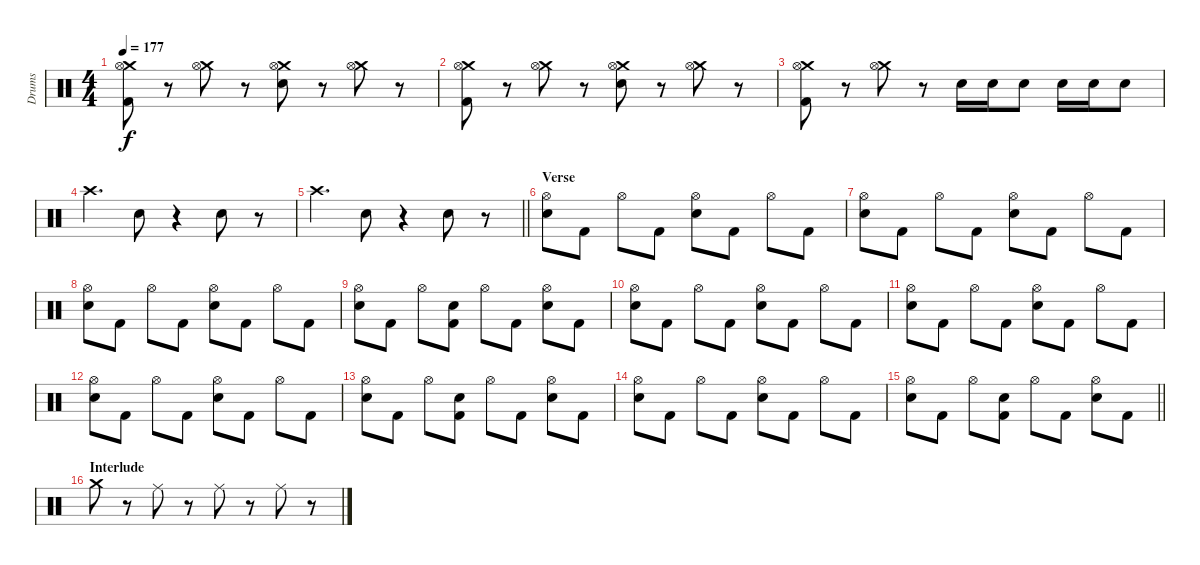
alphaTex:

\track ("Drums" "Drums") {instrument percussion}
\staff {score}
\articulation defaults
\ts (4 4)
\tempo 177
\clef neutral
\ks c
("Crash medium (hit)" "Hi-Hat (open)" "Kick (hit) 2").8{dy f} r.8 ("Crash medium (hit)" "Hi-Hat (open)").8 r.8 ("Crash medium (hit)" "Hi-Hat (open)" "Electric Snare (hit)").8 r.8 ("Crash medium (hit)" "Hi-Hat (open)").8 r.8 |
("Crash medium (hit)" "Hi-Hat (open)" "Kick (hit) 2").8 r.8 ("Crash medium (hit)" "Hi-Hat (open)").8 r.8 ("Crash medium (hit)" "Hi-Hat (open)" "Electric Snare (hit)").8 r.8 ("Crash medium (hit)" "Hi-Hat (open)").8 r.8 |
("Crash medium (hit)" "Hi-Hat (open)" "Kick (hit) 2").8 r.8 ("Crash medium (hit)" "Hi-Hat (open)").8 r.8 "Electric Snare (hit)".16 "Electric Snare (hit)".16 "Electric Snare (hit)".8 "Electric Snare (hit)".16 "Electric Snare (hit)".16 "Electric Snare (hit)".8 |
"Crash high (hit)".4{d} "Electric Snare (hit)".8 r.4 "Electric Snare (hit)".8 r.8 |
\barLineRight lightlight "Crash high (hit)".4{d} "Electric Snare (hit)".8
r.4 "Electric Snare (hit)".8 r.8 |
\section ("" "Verse")
("Hi-Hat (open)" "Electric Snare (hit)").8 "Kick (hit) 2".8 "Hi-Hat (open)".8 "Kick (hit) 2".8 ("Hi-Hat (open)" "Electric Snare (hit)").8 "Kick (hit) 2".8 "Hi-Hat (open)".8 "Kick (hit) 2".8 |
("Hi-Hat (open)" "Electric Snare (hit)").8 "Kick (hit) 2".8 "Hi-Hat (open)".8 "Kick (hit) 2".8 ("Hi-Hat (open)" "Electric Snare (hit)").8 "Kick (hit) 2".8 "Hi-Hat (open)".8 "Kick (hit) 2".8 |
("Hi-Hat (open)" "Electric Snare (hit)").8 "Kick (hit) 2".8 "Hi-Hat (open)".8 "Kick (hit) 2".8 ("Hi-Hat (open)" "Electric Snare (hit)").8 "Kick (hit) 2".8 "Hi-Hat (open)".8 "Kick (hit) 2".8 |
("Hi-Hat (open)" "Electric Snare (hit)").8 "Kick (hit) 2".8 "Hi-Hat (open)".8 ("Electric Snare (hit)" "Kick (hit) 2").8 "Hi-Hat (open)".8 "Kick (hit) 2".8 ("Hi-Hat (open)" "Electric Snare (hit)").8 "Kick (hit) 2".8 |
("Hi-Hat (open)" "Electric Snare (hit)").8 "Kick (hit) 2".8 "Hi-Hat (open)".8 "Kick (hit) 2".8 ("Hi-Hat (open)" "Electric Snare (hit)").8 "Kick (hit) 2".8 "Hi-Hat (open)".8 "Kick (hit) 2".8 |
("Hi-Hat (open)" "Electric Snare (hit)").8 "Kick (hit) 2".8 "Hi-Hat (open)".8 "Kick (hit) 2".8 ("Hi-Hat (open)" "Electric Snare (hit)").8 "Kick (hit) 2".8 "Hi-Hat (open)".8 "Kick (hit) 2".8 |
("Hi-Hat (open)" "Electric Snare (hit)").8 "Kick (hit) 2".8 "Hi-Hat (open)".8 "Kick (hit) 2".8 ("Hi-Hat (open)" "Electric Snare (hit)").8 "Kick (hit) 2".8 "Hi-Hat (open)".8 "Kick (hit) 2".8 |
("Hi-Hat (open)" "Electric Snare (hit)").8 "Kick (hit) 2".8 "Hi-Hat (open)".8 ("Electric Snare (hit)" "Kick (hit) 2").8 "Hi-Hat (open)".8 "Kick (hit) 2".8 ("Hi-Hat (open)" "Electric Snare (hit)").8 "Kick (hit) 2".8 |
("Hi-Hat (open)" "Electric Snare (hit)").8 "Kick (hit) 2".8 "Hi-Hat (open)".8 "Kick (hit) 2".8 ("Hi-Hat (open)" "Electric Snare (hit)").8 "Kick (hit) 2".8 "Hi-Hat (open)".8 "Kick (hit) 2".8 |
\barLineRight lightlight
("Hi-Hat (open)" "Electric Snare (hit)").8 "Kick (hit) 2".8 "Hi-Hat (open)".8 ("Electric Snare (hit)" "Kick (hit) 2").8 "Hi-Hat (open)".8 "Kick (hit) 2".8 ("Hi-Hat (open)" "Electric Snare (hit)").8 "Kick (hit) 2".8 |
\section ("" "Interlude")
"Crash medium (hit)".8 r.8 "Ride (middle)".8 r.8 "Ride (middle)".8 r.8 "Ride (middle)".8 r.8
